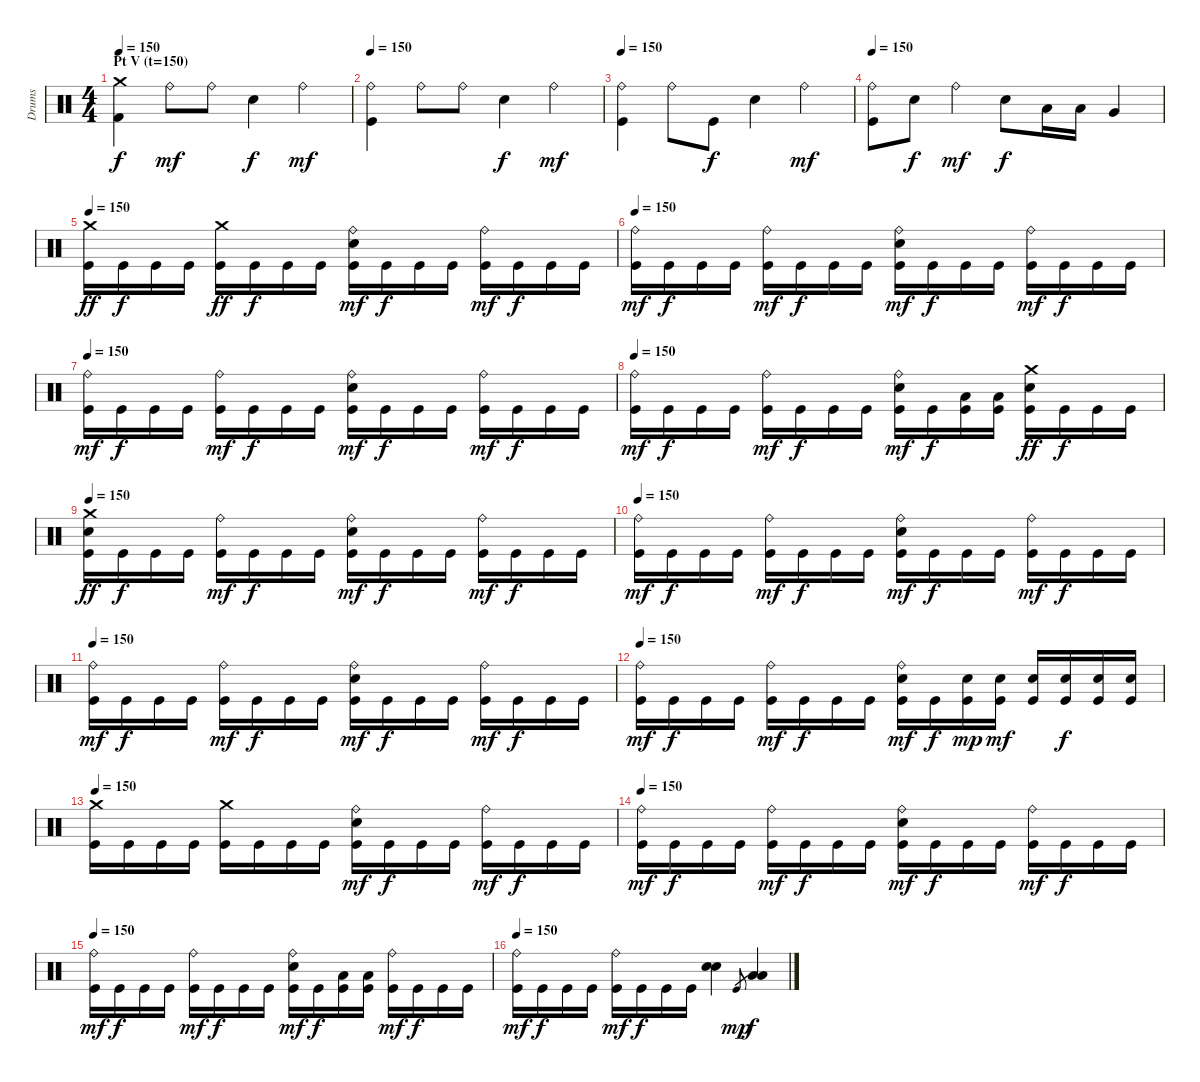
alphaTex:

\track ("Drums" "Drums") {instrument percussion}
\staff {score}
\articulation defaults
\ts (4 4)
\section ("" "Pt V (t=150)")
\tempo 150
\clef neutral
\ks c
("Kick (hit) 2" "Crash medium (hit)").4{dy f} "Ride (bell)".8{dy mf} "Ride (bell)".8 "Electric Snare (hit)".4{dy f} "Ride (bell)".4{dy mf} |
\tempo 150
("Kick (hit)" "Ride (bell)").4 "Ride (bell)".8 "Ride (bell)".8 "Electric Snare (hit)".4{dy f} "Ride (bell)".4{dy mf} |
\tempo 150
("Kick (hit)" "Ride (bell)").4 "Ride (bell)".8 "Kick (hit)".8{dy f} "Electric Snare (hit)".4 "Ride (bell)".4{dy mf} |
\tempo 150
("Kick (hit)" "Ride (bell)").8 "Electric Snare (hit)".8{dy f} "Ride (bell)".4{dy mf} "Electric Snare (hit)".8{dy f} "Low Tom (hit)".16 "Low Tom (hit)".16 "Very Low Tom (hit)".4 |
\tempo 150
("Kick (hit)" "Crash medium (hit)").16{dy ff} "Kick (hit)".16{dy f} "Kick (hit)".16 "Kick (hit)".16 ("Kick (hit)" "Crash medium (hit)").16{dy ff} "Kick (hit)".16{dy f} "Kick (hit)".16 "Kick (hit)".16 ("Kick (hit)" "Electric Snare (hit)" "Ride (bell)").16{dy mf} "Kick (hit)".16{dy f} "Kick (hit)".16 "Kick (hit)".16 ("Kick (hit)" "Ride (bell)").16{dy mf} "Kick (hit)".16{dy f} "Kick (hit)".16 "Kick (hit)".16 |
\tempo 150
("Kick (hit)" "Ride (bell)").16{dy mf} "Kick (hit)".16{dy f} "Kick (hit)".16 "Kick (hit)".16 ("Kick (hit)" "Ride (bell)").16{dy mf} "Kick (hit)".16{dy f} "Kick (hit)".16 "Kick (hit)".16 ("Kick (hit)" "Electric Snare (hit)" "Ride (bell)").16{dy mf} "Kick (hit)".16{dy f} "Kick (hit)".16 "Kick (hit)".16 ("Kick (hit)" "Ride (bell)").16{dy mf} "Kick (hit)".16{dy f} "Kick (hit)".16 "Kick (hit)".16 |
\tempo 150
("Kick (hit)" "Ride (bell)").16{dy mf} "Kick (hit)".16{dy f} "Kick (hit)".16 "Kick (hit)".16 ("Kick (hit)" "Ride (bell)").16{dy mf} "Kick (hit)".16{dy f} "Kick (hit)".16 "Kick (hit)".16 ("Kick (hit)" "Electric Snare (hit)" "Ride (bell)").16{dy mf} "Kick (hit)".16{dy f} "Kick (hit)".16 "Kick (hit)".16 ("Kick (hit)" "Ride (bell)").16{dy mf} "Kick (hit)".16{dy f} "Kick (hit)".16 "Kick (hit)".16 |
\tempo 150
("Kick (hit)" "Ride (bell)").16{dy mf} "Kick (hit)".16{dy f} "Kick (hit)".16 "Kick (hit)".16 ("Kick (hit)" "Ride (bell)").16{dy mf} "Kick (hit)".16{dy f} "Kick (hit)".16 "Kick (hit)".16 ("Kick (hit)" "Electric Snare (hit)" "Ride (bell)").16{dy mf} "Kick (hit)".16{dy f} ("Kick (hit)" "Low Tom (hit)").16 ("Kick (hit)" "Low Tom (hit)").16 ("Kick (hit)" "Electric Snare (hit)" "Crash medium (hit)").16{dy ff} "Kick (hit)".16{dy f} "Kick (hit)".16 "Kick (hit)".16 |
\tempo 150
("Kick (hit)" "Electric Snare (hit)" "Crash medium (hit)").16{dy ff} "Kick (hit)".16{dy f} "Kick (hit)".16 "Kick (hit)".16 ("Kick (hit)" "Ride (bell)").16{dy mf} "Kick (hit)".16{dy f} "Kick (hit)".16 "Kick (hit)".16 ("Kick (hit)" "Electric Snare (hit)" "Ride (bell)").16{dy mf} "Kick (hit)".16{dy f} "Kick (hit)".16 "Kick (hit)".16 ("Kick (hit)" "Ride (bell)").16{dy mf} "Kick (hit)".16{dy f} "Kick (hit)".16 "Kick (hit)".16 |
\tempo 150
("Kick (hit)" "Ride (bell)").16{dy mf} "Kick (hit)".16{dy f} "Kick (hit)".16 "Kick (hit)".16 ("Kick (hit)" "Ride (bell)").16{dy mf} "Kick (hit)".16{dy f} "Kick (hit)".16 "Kick (hit)".16 ("Kick (hit)" "Electric Snare (hit)" "Ride (bell)").16{dy mf} "Kick (hit)".16{dy f} "Kick (hit)".16 "Kick (hit)".16 ("Kick (hit)" "Ride (bell)").16{dy mf} "Kick (hit)".16{dy f} "Kick (hit)".16 "Kick (hit)".16 |
\tempo 150
("Kick (hit)" "Ride (bell)").16{dy mf} "Kick (hit)".16{dy f} "Kick (hit)".16 "Kick (hit)".16 ("Kick (hit)" "Ride (bell)").16{dy mf} "Kick (hit)".16{dy f} "Kick (hit)".16 "Kick (hit)".16 ("Kick (hit)" "Electric Snare (hit)" "Ride (bell)").16{dy mf} "Kick (hit)".16{dy f} "Kick (hit)".16 "Kick (hit)".16 ("Kick (hit)" "Ride (bell)").16{dy mf} "Kick (hit)".16{dy f} "Kick (hit)".16 "Kick (hit)".16 |
\tempo 150
("Kick (hit)" "Ride (bell)").16{dy mf} "Kick (hit)".16{dy f} "Kick (hit)".16 "Kick (hit)".16 ("Kick (hit)" "Ride (bell)").16{dy mf} "Kick (hit)".16{dy f} "Kick (hit)".16 "Kick (hit)".16 ("Kick (hit)" "Electric Snare (hit)" "Ride (bell)").16{dy mf} "Kick (hit)".16{dy f} ("Kick (hit)" "Electric Snare (hit)").16{dy mp} ("Kick (hit)" "Electric Snare (hit)").16{dy mf} ("Kick (hit)" "Electric Snare (hit)").16 ("Kick (hit)" "Electric Snare (hit)").16{dy f} ("Kick (hit)" "Electric Snare (hit)").16 ("Kick (hit)" "Electric Snare (hit)").16 |
\tempo 150
("Kick (hit)" "Crash medium (hit)").16 "Kick (hit)".16 "Kick (hit)".16 "Kick (hit)".16 ("Kick (hit)" "Crash medium (hit)").16 "Kick (hit)".16 "Kick (hit)".16 "Kick (hit)".16 ("Kick (hit)" "Electric Snare (hit)" "Ride (bell)").16{dy mf} "Kick (hit)".16{dy f} "Kick (hit)".16 "Kick (hit)".16 ("Kick (hit)" "Ride (bell)").16{dy mf} "Kick (hit)".16{dy f} "Kick (hit)".16 "Kick (hit)".16 |
\tempo 150
("Kick (hit)" "Ride (bell)").16{dy mf} "Kick (hit)".16{dy f} "Kick (hit)".16 "Kick (hit)".16 ("Kick (hit)" "Ride (bell)").16{dy mf} "Kick (hit)".16{dy f} "Kick (hit)".16 "Kick (hit)".16 ("Kick (hit)" "Electric Snare (hit)" "Ride (bell)").16{dy mf} "Kick (hit)".16{dy f} "Kick (hit)".16 "Kick (hit)".16 ("Kick (hit)" "Ride (bell)").16{dy mf} "Kick (hit)".16{dy f} "Kick (hit)".16 "Kick (hit)".16 |
\tempo 150
("Kick (hit)" "Ride (bell)").16{dy mf} "Kick (hit)".16{dy f} "Kick (hit)".16 "Kick (hit)".16 ("Kick (hit)" "Ride (bell)").16{dy mf} "Kick (hit)".16{dy f} "Kick (hit)".16 "Kick (hit)".16 ("Kick (hit)" "Electric Snare (hit)" "Ride (bell)").16{dy mf} "Kick (hit)".16{dy f} ("Kick (hit)" "Low Tom (hit)").16 ("Kick (hit)" "Low Tom (hit)").16 ("Kick (hit)" "Ride (bell)").16{dy mf} "Kick (hit)".16{dy f} "Kick (hit)".16 "Kick (hit)".16 |
\tempo 150
("Kick (hit)" "Ride (bell)").16{dy mf} "Kick (hit)".16{dy f} "Kick (hit)".16 "Kick (hit)".16 ("Kick (hit)" "Ride (bell)").16{dy mf} "Kick (hit)".16{dy f} "Kick (hit)".16 "Kick (hit)".16 ("Electric Snare (hit)" "Electric Snare (hit)").4 "Kick (hit)".8{gr dy mp} ("Low Tom (hit)" "Low Tom (hit)").4{dy f}
